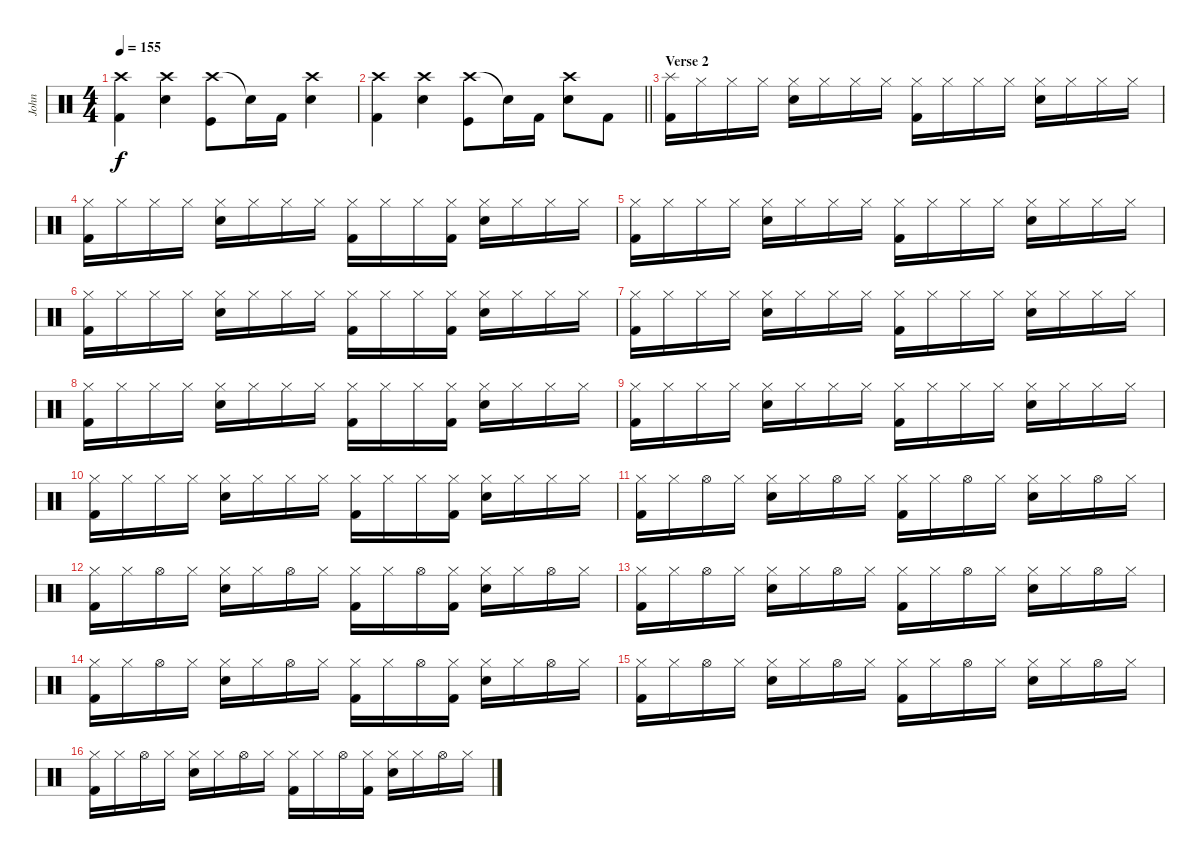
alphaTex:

\track ("John" "John") {instrument percussion}
\staff {score}
\articulation defaults
\ts (4 4)
\tempo 155
\clef neutral
\ks c
("Crash high (hit)" "Kick (hit) 2").4{dy f} ("Crash high (hit)" "Snare (hit) 2").4 ("Crash high (hit)" "Kick (hit)").8 "Snare (hit)"{t}.16 "Kick (hit) 2".16 ("Crash high (hit)" "Snare (hit) 2").4 |
\barLineRight lightlight
("Crash high (hit)" "Kick (hit) 2").4 ("Crash high (hit)" "Snare (hit) 2").4 ("Crash high (hit)" "Kick (hit)").8 "Snare (hit)"{t}.16 "Kick (hit) 2".16 ("Crash high (hit)" "Snare (hit) 2").8 "Kick (hit) 2".8 |
\section ("" "Verse 2")
("Splash (hit)" "Kick (hit) 2").16 "Hi-Hat (closed)".16 "Hi-Hat (closed)".16 "Hi-Hat (closed)".16 ("Hi-Hat (closed)" "Snare (hit) 2").16 "Hi-Hat (closed)".16 "Hi-Hat (closed)".16 "Hi-Hat (closed)".16 ("Hi-Hat (closed)" "Kick (hit) 2").16 "Hi-Hat (closed)".16 "Hi-Hat (closed)".16 "Hi-Hat (closed)".16 ("Hi-Hat (closed)" "Snare (hit) 2").16 "Hi-Hat (closed)".16 "Hi-Hat (closed)".16 "Hi-Hat (closed)".16 |
("Hi-Hat (closed)" "Kick (hit) 2").16 "Hi-Hat (closed)".16 "Hi-Hat (closed)".16 "Hi-Hat (closed)".16 ("Hi-Hat (closed)" "Snare (hit) 2").16 "Hi-Hat (closed)".16 "Hi-Hat (closed)".16 "Hi-Hat (closed)".16 ("Hi-Hat (closed)" "Kick (hit) 2").16 "Hi-Hat (closed)".16 "Hi-Hat (closed)".16 ("Hi-Hat (closed)" "Kick (hit) 2").16 ("Hi-Hat (closed)" "Snare (hit) 2").16 "Hi-Hat (closed)".16 "Hi-Hat (closed)".16 "Hi-Hat (closed)".16 |
("Hi-Hat (closed)" "Kick (hit) 2").16 "Hi-Hat (closed)".16 "Hi-Hat (closed)".16 "Hi-Hat (closed)".16 ("Hi-Hat (closed)" "Snare (hit) 2").16 "Hi-Hat (closed)".16 "Hi-Hat (closed)".16 "Hi-Hat (closed)".16 ("Hi-Hat (closed)" "Kick (hit) 2").16 "Hi-Hat (closed)".16 "Hi-Hat (closed)".16 "Hi-Hat (closed)".16 ("Hi-Hat (closed)" "Snare (hit) 2").16 "Hi-Hat (closed)".16 "Hi-Hat (closed)".16 "Hi-Hat (closed)".16 |
("Hi-Hat (closed)" "Kick (hit) 2").16 "Hi-Hat (closed)".16 "Hi-Hat (closed)".16 "Hi-Hat (closed)".16 ("Hi-Hat (closed)" "Snare (hit) 2").16 "Hi-Hat (closed)".16 "Hi-Hat (closed)".16 "Hi-Hat (closed)".16 ("Hi-Hat (closed)" "Kick (hit) 2").16 "Hi-Hat (closed)".16 "Hi-Hat (closed)".16 ("Hi-Hat (closed)" "Kick (hit) 2").16 ("Hi-Hat (closed)" "Snare (hit) 2").16 "Hi-Hat (closed)".16 "Hi-Hat (closed)".16 "Hi-Hat (closed)".16 |
("Hi-Hat (closed)" "Kick (hit) 2").16 "Hi-Hat (closed)".16 "Hi-Hat (closed)".16 "Hi-Hat (closed)".16 ("Hi-Hat (closed)" "Snare (hit) 2").16 "Hi-Hat (closed)".16 "Hi-Hat (closed)".16 "Hi-Hat (closed)".16 ("Hi-Hat (closed)" "Kick (hit) 2").16 "Hi-Hat (closed)".16 "Hi-Hat (closed)".16 "Hi-Hat (closed)".16 ("Hi-Hat (closed)" "Snare (hit) 2").16 "Hi-Hat (closed)".16 "Hi-Hat (closed)".16 "Hi-Hat (closed)".16 |
("Hi-Hat (closed)" "Kick (hit) 2").16 "Hi-Hat (closed)".16 "Hi-Hat (closed)".16 "Hi-Hat (closed)".16 ("Hi-Hat (closed)" "Snare (hit) 2").16 "Hi-Hat (closed)".16 "Hi-Hat (closed)".16 "Hi-Hat (closed)".16 ("Hi-Hat (closed)" "Kick (hit) 2").16 "Hi-Hat (closed)".16 "Hi-Hat (closed)".16 ("Hi-Hat (closed)" "Kick (hit) 2").16 ("Hi-Hat (closed)" "Snare (hit) 2").16 "Hi-Hat (closed)".16 "Hi-Hat (closed)".16 "Hi-Hat (closed)".16 |
("Hi-Hat (closed)" "Kick (hit) 2").16 "Hi-Hat (closed)".16 "Hi-Hat (closed)".16 "Hi-Hat (closed)".16 ("Hi-Hat (closed)" "Snare (hit) 2").16 "Hi-Hat (closed)".16 "Hi-Hat (closed)".16 "Hi-Hat (closed)".16 ("Hi-Hat (closed)" "Kick (hit) 2").16 "Hi-Hat (closed)".16 "Hi-Hat (closed)".16 "Hi-Hat (closed)".16 ("Hi-Hat (closed)" "Snare (hit) 2").16 "Hi-Hat (closed)".16 "Hi-Hat (closed)".16 "Hi-Hat (closed)".16 |
("Hi-Hat (closed)" "Kick (hit) 2").16 "Hi-Hat (closed)".16 "Hi-Hat (closed)".16 "Hi-Hat (closed)".16 ("Hi-Hat (closed)" "Snare (hit) 2").16 "Hi-Hat (closed)".16 "Hi-Hat (closed)".16 "Hi-Hat (closed)".16 ("Hi-Hat (closed)" "Kick (hit) 2").16 "Hi-Hat (closed)".16 "Hi-Hat (closed)".16 ("Hi-Hat (closed)" "Kick (hit) 2").16 ("Hi-Hat (closed)" "Snare (hit) 2").16 "Hi-Hat (closed)".16 "Hi-Hat (closed)".16 "Hi-Hat (closed)".16 |
("Hi-Hat (closed)" "Kick (hit) 2").16 "Hi-Hat (closed)".16 "Hi-Hat (open)".16 "Hi-Hat (closed)".16 ("Hi-Hat (closed)" "Snare (hit) 2").16 "Hi-Hat (closed)".16 "Hi-Hat (open)".16 "Hi-Hat (closed)".16 ("Hi-Hat (closed)" "Kick (hit) 2").16 "Hi-Hat (closed)".16 "Hi-Hat (open)".16 "Hi-Hat (closed)".16 ("Hi-Hat (closed)" "Snare (hit) 2").16 "Hi-Hat (closed)".16 "Hi-Hat (open)".16 "Hi-Hat (closed)".16 |
("Hi-Hat (closed)" "Kick (hit) 2").16 "Hi-Hat (closed)".16 "Hi-Hat (open)".16 "Hi-Hat (closed)".16 ("Hi-Hat (closed)" "Snare (hit) 2").16 "Hi-Hat (closed)".16 "Hi-Hat (open)".16 "Hi-Hat (closed)".16 ("Hi-Hat (closed)" "Kick (hit) 2").16 "Hi-Hat (closed)".16 "Hi-Hat (open)".16 ("Hi-Hat (closed)" "Kick (hit) 2").16 ("Hi-Hat (closed)" "Snare (hit) 2").16 "Hi-Hat (closed)".16 "Hi-Hat (open)".16 "Hi-Hat (closed)".16 |
("Hi-Hat (closed)" "Kick (hit) 2").16 "Hi-Hat (closed)".16 "Hi-Hat (open)".16 "Hi-Hat (closed)".16 ("Hi-Hat (closed)" "Snare (hit) 2").16 "Hi-Hat (closed)".16 "Hi-Hat (open)".16 "Hi-Hat (closed)".16 ("Hi-Hat (closed)" "Kick (hit) 2").16 "Hi-Hat (closed)".16 "Hi-Hat (open)".16 "Hi-Hat (closed)".16 ("Hi-Hat (closed)" "Snare (hit) 2").16 "Hi-Hat (closed)".16 "Hi-Hat (open)".16 "Hi-Hat (closed)".16 |
("Hi-Hat (closed)" "Kick (hit) 2").16 "Hi-Hat (closed)".16 "Hi-Hat (open)".16 "Hi-Hat (closed)".16 ("Hi-Hat (closed)" "Snare (hit) 2").16 "Hi-Hat (closed)".16 "Hi-Hat (open)".16 "Hi-Hat (closed)".16 ("Hi-Hat (closed)" "Kick (hit) 2").16 "Hi-Hat (closed)".16 "Hi-Hat (open)".16 ("Hi-Hat (closed)" "Kick (hit) 2").16 ("Hi-Hat (closed)" "Snare (hit) 2").16 "Hi-Hat (closed)".16 "Hi-Hat (open)".16 "Hi-Hat (closed)".16 |
("Hi-Hat (closed)" "Kick (hit) 2").16 "Hi-Hat (closed)".16 "Hi-Hat (open)".16 "Hi-Hat (closed)".16 ("Hi-Hat (closed)" "Snare (hit) 2").16 "Hi-Hat (closed)".16 "Hi-Hat (open)".16 "Hi-Hat (closed)".16 ("Hi-Hat (closed)" "Kick (hit) 2").16 "Hi-Hat (closed)".16 "Hi-Hat (open)".16 "Hi-Hat (closed)".16 ("Hi-Hat (closed)" "Snare (hit) 2").16 "Hi-Hat (closed)".16 "Hi-Hat (open)".16 "Hi-Hat (closed)".16 |
("Hi-Hat (closed)" "Kick (hit) 2").16 "Hi-Hat (closed)".16 "Hi-Hat (open)".16 "Hi-Hat (closed)".16 ("Hi-Hat (closed)" "Snare (hit) 2").16 "Hi-Hat (closed)".16 "Hi-Hat (open)".16 "Hi-Hat (closed)".16 ("Hi-Hat (closed)" "Kick (hit) 2").16 "Hi-Hat (closed)".16 "Hi-Hat (open)".16 ("Hi-Hat (closed)" "Kick (hit) 2").16 ("Hi-Hat (closed)" "Snare (hit) 2").16 "Hi-Hat (closed)".16 "Hi-Hat (open)".16 "Hi-Hat (closed)".16
